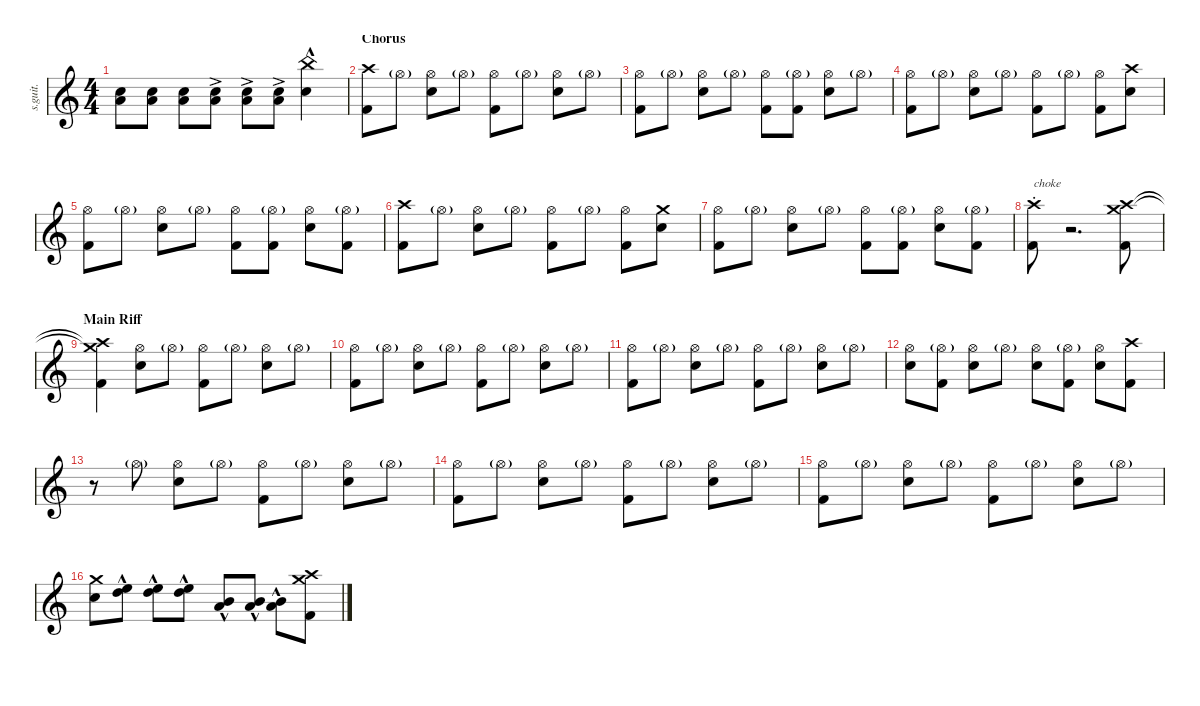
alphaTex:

\defaultSystemsLayout 4
\hideDynamics
\bracketExtendMode nobrackets
\track ("Lars Ulrich" "s.guit.") {instrument percussion}
\staff {score}
\articulation defaults
\ts (4 4)
\tempo (124 hide)
\clef g2
\ks c
("Snare (hit) 2" "Low Floor Tom (hit)").8{lyrics (0 "") lyrics (1 "") lyrics (2 "") lyrics (3 "") lyrics (4 "") dy ff} ("Snare (hit) 2" "Low Floor Tom (hit)").8{lyrics (0 "") lyrics (1 "") lyrics (2 "") lyrics (3 "") lyrics (4 "")} ("Snare (hit) 2" "Low Floor Tom (hit)").8{lyrics (0 "") lyrics (1 "") lyrics (2 "") lyrics (3 "") lyrics (4 "")} ("Snare (hit) 2"{ac} "Low Floor Tom (hit)"{ac}).8{lyrics (0 "") lyrics (1 "") lyrics (2 "") lyrics (3 "") lyrics (4 "")} ("Snare (hit) 2"{ac} "Low Floor Tom (hit)"{ac}).8{lyrics (0 "") lyrics (1 "") lyrics (2 "") lyrics (3 "") lyrics (4 "")} ("Snare (hit) 2"{ac} "Low Floor Tom (hit)"{ac}).8{lyrics (0 "") lyrics (1 "") lyrics (2 "") lyrics (3 "") lyrics (4 "")} ("Snare (hit) 2" "China (hit)"{hac}).4{lyrics (0 "") lyrics (1 "") lyrics (2 "") lyrics (3 "") lyrics (4 "")} |
\section ("" "Chorus")
("Crash high (hit)" "Kick (hit) 2").8{lyrics (0 "") lyrics (1 "") lyrics (2 "") lyrics (3 "") lyrics (4 "") dy f} "Hi-Hat (open)"{g}.8{lyrics (0 "") lyrics (1 "") lyrics (2 "") lyrics (3 "") lyrics (4 "") dy p} ("Hi-Hat (open)" "Snare (hit) 2").8{lyrics (0 "") lyrics (1 "") lyrics (2 "") lyrics (3 "") lyrics (4 "") dy f} "Hi-Hat (open)"{g}.8{lyrics (0 "") lyrics (1 "") lyrics (2 "") lyrics (3 "") lyrics (4 "") dy p} ("Hi-Hat (open)" "Kick (hit) 2").8{lyrics (0 "") lyrics (1 "") lyrics (2 "") lyrics (3 "") lyrics (4 "") dy f} "Hi-Hat (open)"{g}.8{lyrics (0 "") lyrics (1 "") lyrics (2 "") lyrics (3 "") lyrics (4 "") dy p} ("Hi-Hat (open)" "Snare (hit) 2").8{lyrics (0 "") lyrics (1 "") lyrics (2 "") lyrics (3 "") lyrics (4 "") dy f} "Hi-Hat (open)"{g}.8{lyrics (0 "") lyrics (1 "") lyrics (2 "") lyrics (3 "") lyrics (4 "") dy p} |
("Hi-Hat (open)" "Kick (hit) 2").8{lyrics (0 "") lyrics (1 "") lyrics (2 "") lyrics (3 "") lyrics (4 "") dy f} "Hi-Hat (open)"{g}.8{lyrics (0 "") lyrics (1 "") lyrics (2 "") lyrics (3 "") lyrics (4 "") dy p} ("Hi-Hat (open)" "Snare (hit) 2").8{lyrics (0 "") lyrics (1 "") lyrics (2 "") lyrics (3 "") lyrics (4 "") dy f} "Hi-Hat (open)"{g}.8{lyrics (0 "") lyrics (1 "") lyrics (2 "") lyrics (3 "") lyrics (4 "") dy p} ("Hi-Hat (open)" "Kick (hit) 2").8{lyrics (0 "") lyrics (1 "") lyrics (2 "") lyrics (3 "") lyrics (4 "") dy f} ("Hi-Hat (open)"{g} "Kick (hit) 2").8{lyrics (0 "") lyrics (1 "") lyrics (2 "") lyrics (3 "") lyrics (4 "")} ("Hi-Hat (open)" "Snare (hit) 2").8{lyrics (0 "") lyrics (1 "") lyrics (2 "") lyrics (3 "") lyrics (4 "")} "Hi-Hat (open)"{g}.8{lyrics (0 "") lyrics (1 "") lyrics (2 "") lyrics (3 "") lyrics (4 "") dy p} |
("Hi-Hat (open)" "Kick (hit) 2").8{lyrics (0 "") lyrics (1 "") lyrics (2 "") lyrics (3 "") lyrics (4 "") dy f} "Hi-Hat (open)"{g}.8{lyrics (0 "") lyrics (1 "") lyrics (2 "") lyrics (3 "") lyrics (4 "") dy p} ("Hi-Hat (open)" "Snare (hit) 2").8{lyrics (0 "") lyrics (1 "") lyrics (2 "") lyrics (3 "") lyrics (4 "") dy f} "Hi-Hat (open)"{g}.8{lyrics (0 "") lyrics (1 "") lyrics (2 "") lyrics (3 "") lyrics (4 "") dy p} ("Hi-Hat (open)" "Kick (hit) 2").8{lyrics (0 "") lyrics (1 "") lyrics (2 "") lyrics (3 "") lyrics (4 "") dy f} "Hi-Hat (open)"{g}.8{lyrics (0 "") lyrics (1 "") lyrics (2 "") lyrics (3 "") lyrics (4 "") dy p} ("Hi-Hat (open)" "Kick (hit) 2").8{lyrics (0 "") lyrics (1 "") lyrics (2 "") lyrics (3 "") lyrics (4 "") dy f} ("Crash high (hit)" "Snare (hit) 2").8{lyrics (0 "") lyrics (1 "") lyrics (2 "") lyrics (3 "") lyrics (4 "")} |
("Hi-Hat (open)" "Kick (hit) 2").8{lyrics (0 "") lyrics (1 "") lyrics (2 "") lyrics (3 "") lyrics (4 "")} "Hi-Hat (open)"{g}.8{lyrics (0 "") lyrics (1 "") lyrics (2 "") lyrics (3 "") lyrics (4 "") dy p} ("Hi-Hat (open)" "Snare (hit) 2").8{lyrics (0 "") lyrics (1 "") lyrics (2 "") lyrics (3 "") lyrics (4 "") dy f} "Hi-Hat (open)"{g}.8{lyrics (0 "") lyrics (1 "") lyrics (2 "") lyrics (3 "") lyrics (4 "") dy p} ("Hi-Hat (open)" "Kick (hit) 2").8{lyrics (0 "") lyrics (1 "") lyrics (2 "") lyrics (3 "") lyrics (4 "") dy f} ("Hi-Hat (open)"{g} "Kick (hit) 2").8{lyrics (0 "") lyrics (1 "") lyrics (2 "") lyrics (3 "") lyrics (4 "")} ("Hi-Hat (open)" "Snare (hit) 2").8{lyrics (0 "") lyrics (1 "") lyrics (2 "") lyrics (3 "") lyrics (4 "")} ("Hi-Hat (open)"{g} "Kick (hit) 2").8{lyrics (0 "") lyrics (1 "") lyrics (2 "") lyrics (3 "") lyrics (4 "")} |
("Crash high (hit)" "Kick (hit) 2").8{lyrics (0 "") lyrics (1 "") lyrics (2 "") lyrics (3 "") lyrics (4 "")} "Hi-Hat (open)"{g}.8{lyrics (0 "") lyrics (1 "") lyrics (2 "") lyrics (3 "") lyrics (4 "") dy p} ("Hi-Hat (open)" "Snare (hit) 2").8{lyrics (0 "") lyrics (1 "") lyrics (2 "") lyrics (3 "") lyrics (4 "") dy f} "Hi-Hat (open)"{g}.8{lyrics (0 "") lyrics (1 "") lyrics (2 "") lyrics (3 "") lyrics (4 "") dy p} ("Hi-Hat (open)" "Kick (hit) 2").8{lyrics (0 "") lyrics (1 "") lyrics (2 "") lyrics (3 "") lyrics (4 "") dy f} "Hi-Hat (open)"{g}.8{lyrics (0 "") lyrics (1 "") lyrics (2 "") lyrics (3 "") lyrics (4 "") dy p} ("Hi-Hat (open)" "Kick (hit) 2").8{lyrics (0 "") lyrics (1 "") lyrics (2 "") lyrics (3 "") lyrics (4 "") dy f} ("Crash medium (hit)" "Snare (hit) 2").8{lyrics (0 "") lyrics (1 "") lyrics (2 "") lyrics (3 "") lyrics (4 "")} |
("Hi-Hat (open)" "Kick (hit) 2").8{lyrics (0 "") lyrics (1 "") lyrics (2 "") lyrics (3 "") lyrics (4 "")} "Hi-Hat (open)"{g}.8{lyrics (0 "") lyrics (1 "") lyrics (2 "") lyrics (3 "") lyrics (4 "") dy p} ("Hi-Hat (open)" "Snare (hit) 2").8{lyrics (0 "") lyrics (1 "") lyrics (2 "") lyrics (3 "") lyrics (4 "") dy f} "Hi-Hat (open)"{g}.8{lyrics (0 "") lyrics (1 "") lyrics (2 "") lyrics (3 "") lyrics (4 "") dy p} ("Hi-Hat (open)" "Kick (hit) 2").8{lyrics (0 "") lyrics (1 "") lyrics (2 "") lyrics (3 "") lyrics (4 "") dy f} ("Hi-Hat (open)"{g} "Kick (hit) 2").8{lyrics (0 "") lyrics (1 "") lyrics (2 "") lyrics (3 "") lyrics (4 "")} ("Hi-Hat (open)" "Snare (hit) 2").8{lyrics (0 "") lyrics (1 "") lyrics (2 "") lyrics (3 "") lyrics (4 "")} ("Hi-Hat (open)"{g} "Kick (hit) 2").8{lyrics (0 "") lyrics (1 "") lyrics (2 "") lyrics (3 "") lyrics (4 "")} |
("Kick (hit) 2" "Crash high (hit)"{st}).8{txt "choke" lyrics (0 "") lyrics (1 "") lyrics (2 "") lyrics (3 "") lyrics (4 "")} r.2{d} ("Crash high (hit)" "Crash medium (hit)" "Kick (hit) 2").8{lyrics (0 "") lyrics (1 "") lyrics (2 "") lyrics (3 "") lyrics (4 "")} |
\section ("" "Main Riff")
("Crash high (hit)"{t} "Crash medium (hit)"{t} "Kick (hit) 2").4{lyrics (0 "") lyrics (1 "") lyrics (2 "") lyrics (3 "") lyrics (4 "")} ("Hi-Hat (open)" "Snare (hit) 2").8{lyrics (0 "") lyrics (1 "") lyrics (2 "") lyrics (3 "") lyrics (4 "")} "Hi-Hat (open)"{g}.8{lyrics (0 "") lyrics (1 "") lyrics (2 "") lyrics (3 "") lyrics (4 "") dy p} ("Hi-Hat (open)" "Kick (hit) 2").8{lyrics (0 "") lyrics (1 "") lyrics (2 "") lyrics (3 "") lyrics (4 "") dy f} "Hi-Hat (open)"{g}.8{lyrics (0 "") lyrics (1 "") lyrics (2 "") lyrics (3 "") lyrics (4 "") dy p} ("Hi-Hat (open)" "Snare (hit) 2").8{lyrics (0 "") lyrics (1 "") lyrics (2 "") lyrics (3 "") lyrics (4 "") dy f} "Hi-Hat (open)"{g}.8{lyrics (0 "") lyrics (1 "") lyrics (2 "") lyrics (3 "") lyrics (4 "") dy p} |
("Hi-Hat (open)" "Kick (hit) 2").8{lyrics (0 "") lyrics (1 "") lyrics (2 "") lyrics (3 "") lyrics (4 "") dy f} "Hi-Hat (open)"{g}.8{lyrics (0 "") lyrics (1 "") lyrics (2 "") lyrics (3 "") lyrics (4 "") dy p} ("Hi-Hat (open)" "Snare (hit) 2").8{lyrics (0 "") lyrics (1 "") lyrics (2 "") lyrics (3 "") lyrics (4 "") dy f} "Hi-Hat (open)"{g}.8{lyrics (0 "") lyrics (1 "") lyrics (2 "") lyrics (3 "") lyrics (4 "") dy p} ("Hi-Hat (open)" "Kick (hit) 2").8{lyrics (0 "") lyrics (1 "") lyrics (2 "") lyrics (3 "") lyrics (4 "") dy f} "Hi-Hat (open)"{g}.8{lyrics (0 "") lyrics (1 "") lyrics (2 "") lyrics (3 "") lyrics (4 "") dy p} ("Hi-Hat (open)" "Snare (hit) 2").8{lyrics (0 "") lyrics (1 "") lyrics (2 "") lyrics (3 "") lyrics (4 "") dy f} "Hi-Hat (open)"{g}.8{lyrics (0 "") lyrics (1 "") lyrics (2 "") lyrics (3 "") lyrics (4 "") dy p} |
("Hi-Hat (open)" "Kick (hit) 2").8{lyrics (0 "") lyrics (1 "") lyrics (2 "") lyrics (3 "") lyrics (4 "") dy f} "Hi-Hat (open)"{g}.8{lyrics (0 "") lyrics (1 "") lyrics (2 "") lyrics (3 "") lyrics (4 "") dy p} ("Hi-Hat (open)" "Snare (hit) 2").8{lyrics (0 "") lyrics (1 "") lyrics (2 "") lyrics (3 "") lyrics (4 "") dy f} "Hi-Hat (open)"{g}.8{lyrics (0 "") lyrics (1 "") lyrics (2 "") lyrics (3 "") lyrics (4 "") dy p} ("Hi-Hat (open)" "Kick (hit) 2").8{lyrics (0 "") lyrics (1 "") lyrics (2 "") lyrics (3 "") lyrics (4 "") dy f} "Hi-Hat (open)"{g}.8{lyrics (0 "") lyrics (1 "") lyrics (2 "") lyrics (3 "") lyrics (4 "") dy p} ("Hi-Hat (open)" "Snare (hit) 2").8{lyrics (0 "") lyrics (1 "") lyrics (2 "") lyrics (3 "") lyrics (4 "") dy f} "Hi-Hat (open)"{g}.8{lyrics (0 "") lyrics (1 "") lyrics (2 "") lyrics (3 "") lyrics (4 "") dy p} |
("Snare (hit) 2" "Hi-Hat (open)").8{lyrics (0 "") lyrics (1 "") lyrics (2 "") lyrics (3 "") lyrics (4 "") dy f} ("Hi-Hat (open)"{g} "Kick (hit) 2").8{lyrics (0 "") lyrics (1 "") lyrics (2 "") lyrics (3 "") lyrics (4 "")} ("Hi-Hat (open)" "Snare (hit) 2").8{lyrics (0 "") lyrics (1 "") lyrics (2 "") lyrics (3 "") lyrics (4 "")} "Hi-Hat (open)"{g}.8{lyrics (0 "") lyrics (1 "") lyrics (2 "") lyrics (3 "") lyrics (4 "") dy p} ("Snare (hit) 2" "Hi-Hat (open)").8{lyrics (0 "") lyrics (1 "") lyrics (2 "") lyrics (3 "") lyrics (4 "") dy f} ("Hi-Hat (open)"{g} "Kick (hit) 2").8{lyrics (0 "") lyrics (1 "") lyrics (2 "") lyrics (3 "") lyrics (4 "")} ("Snare (hit) 2" "Hi-Hat (open)").8{lyrics (0 "") lyrics (1 "") lyrics (2 "") lyrics (3 "") lyrics (4 "")} ("Crash high (hit)" "Kick (hit) 2").8{lyrics (0 "") lyrics (1 "") lyrics (2 "") lyrics (3 "") lyrics (4 "")} |
r.8 "Hi-Hat (open)"{g}.8{lyrics (0 "") lyrics (1 "") lyrics (2 "") lyrics (3 "") lyrics (4 "") dy mp} ("Hi-Hat (open)" "Snare (hit) 2").8{lyrics (0 "") lyrics (1 "") lyrics (2 "") lyrics (3 "") lyrics (4 "") dy f} "Hi-Hat (open)"{g}.8{lyrics (0 "") lyrics (1 "") lyrics (2 "") lyrics (3 "") lyrics (4 "") dy p} ("Hi-Hat (open)" "Kick (hit) 2").8{lyrics (0 "") lyrics (1 "") lyrics (2 "") lyrics (3 "") lyrics (4 "") dy f} "Hi-Hat (open)"{g}.8{lyrics (0 "") lyrics (1 "") lyrics (2 "") lyrics (3 "") lyrics (4 "") dy p} ("Hi-Hat (open)" "Snare (hit) 2").8{lyrics (0 "") lyrics (1 "") lyrics (2 "") lyrics (3 "") lyrics (4 "") dy f} "Hi-Hat (open)"{g}.8{lyrics (0 "") lyrics (1 "") lyrics (2 "") lyrics (3 "") lyrics (4 "") dy p} |
("Hi-Hat (open)" "Kick (hit) 2").8{lyrics (0 "") lyrics (1 "") lyrics (2 "") lyrics (3 "") lyrics (4 "") dy f} "Hi-Hat (open)"{g}.8{lyrics (0 "") lyrics (1 "") lyrics (2 "") lyrics (3 "") lyrics (4 "") dy p} ("Hi-Hat (open)" "Snare (hit) 2").8{lyrics (0 "") lyrics (1 "") lyrics (2 "") lyrics (3 "") lyrics (4 "") dy f} "Hi-Hat (open)"{g}.8{lyrics (0 "") lyrics (1 "") lyrics (2 "") lyrics (3 "") lyrics (4 "") dy p} ("Hi-Hat (open)" "Kick (hit) 2").8{lyrics (0 "") lyrics (1 "") lyrics (2 "") lyrics (3 "") lyrics (4 "") dy f} "Hi-Hat (open)"{g}.8{lyrics (0 "") lyrics (1 "") lyrics (2 "") lyrics (3 "") lyrics (4 "") dy p} ("Hi-Hat (open)" "Snare (hit) 2").8{lyrics (0 "") lyrics (1 "") lyrics (2 "") lyrics (3 "") lyrics (4 "") dy f} "Hi-Hat (open)"{g}.8{lyrics (0 "") lyrics (1 "") lyrics (2 "") lyrics (3 "") lyrics (4 "") dy p} |
("Hi-Hat (open)" "Kick (hit) 2").8{lyrics (0 "") lyrics (1 "") lyrics (2 "") lyrics (3 "") lyrics (4 "") dy f} "Hi-Hat (open)"{g}.8{lyrics (0 "") lyrics (1 "") lyrics (2 "") lyrics (3 "") lyrics (4 "") dy p} ("Hi-Hat (open)" "Snare (hit) 2").8{lyrics (0 "") lyrics (1 "") lyrics (2 "") lyrics (3 "") lyrics (4 "") dy f} "Hi-Hat (open)"{g}.8{lyrics (0 "") lyrics (1 "") lyrics (2 "") lyrics (3 "") lyrics (4 "") dy p} ("Hi-Hat (open)" "Kick (hit) 2").8{lyrics (0 "") lyrics (1 "") lyrics (2 "") lyrics (3 "") lyrics (4 "") dy f} "Hi-Hat (open)"{g}.8{lyrics (0 "") lyrics (1 "") lyrics (2 "") lyrics (3 "") lyrics (4 "") dy p} ("Hi-Hat (open)" "Snare (hit) 2").8{lyrics (0 "") lyrics (1 "") lyrics (2 "") lyrics (3 "") lyrics (4 "") dy f} "Hi-Hat (open)"{g}.8{lyrics (0 "") lyrics (1 "") lyrics (2 "") lyrics (3 "") lyrics (4 "") dy p} |
("Crash medium (hit)" "Snare (hit) 2").8{lyrics (0 "") lyrics (1 "") lyrics (2 "") lyrics (3 "") lyrics (4 "") dy f} ("High Floor Tom (hit)"{hac} "High Tom (hit)"{hac}).8{lyrics (0 "") lyrics (1 "") lyrics (2 "") lyrics (3 "") lyrics (4 "") dy ff} ("High Floor Tom (hit)"{hac} "High Tom (hit)"{hac}).8{lyrics (0 "") lyrics (1 "") lyrics (2 "") lyrics (3 "") lyrics (4 "")} ("High Floor Tom (hit)"{hac} "High Tom (hit)"{hac}).8{lyrics (0 "") lyrics (1 "") lyrics (2 "") lyrics (3 "") lyrics (4 "")} ("Mid Tom (hit)"{hac} "Low Floor Tom (hit)"{hac}).8{lyrics (0 "") lyrics (1 "") lyrics (2 "") lyrics (3 "") lyrics (4 "")} ("Mid Tom (hit)"{hac} "Low Floor Tom (hit)"{hac}).8{lyrics (0 "") lyrics (1 "") lyrics (2 "") lyrics (3 "") lyrics (4 "")} ("Mid Tom (hit)"{hac} "Low Floor Tom (hit)"{hac}).8{lyrics (0 "") lyrics (1 "") lyrics (2 "") lyrics (3 "") lyrics (4 "")} ("Crash high (hit)" "Crash medium (hit)" "Kick (hit) 2").8{lyrics (0 "") lyrics (1 "") lyrics (2 "") lyrics (3 "") lyrics (4 "") dy f}
